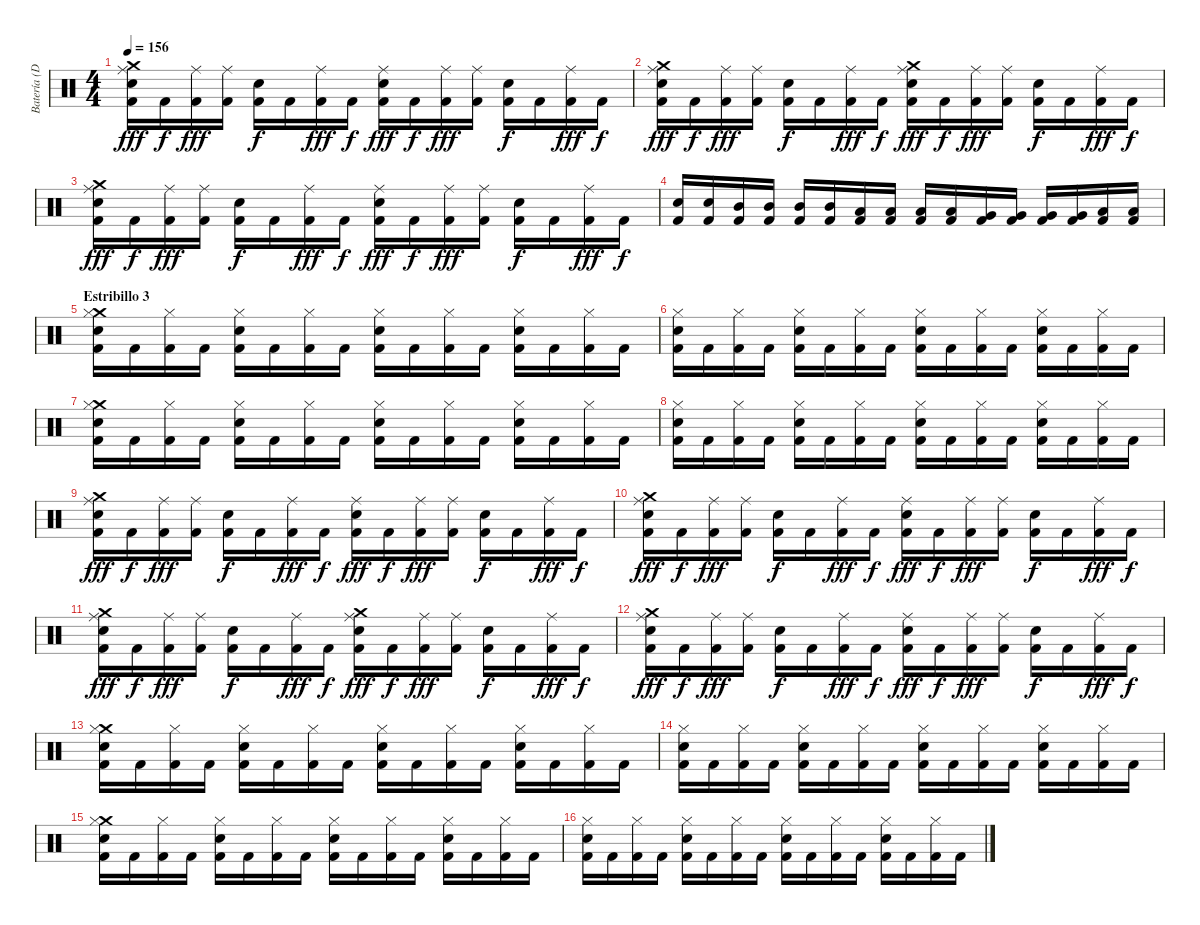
\track ("Batería (Dani)" "Batería (D") {instrument percussion}
\staff {score}
\articulation defaults
\ts (4 4)
\tempo 156
\clef neutral
\ks c
("Crash medium (hit)" "Ride (middle)" "Snare (hit) 2" "Kick (hit) 2").16{dy fff} "Kick (hit) 2".16{dy f} ("Ride (middle)" "Kick (hit) 2").16{dy fff} ("Ride (middle)" "Kick (hit) 2").16 ("Snare (hit) 2" "Kick (hit) 2").16{dy f} "Kick (hit) 2".16 ("Ride (middle)" "Kick (hit) 2").16{dy fff} "Kick (hit) 2".16{dy f} ("Ride (middle)" "Snare (hit) 2" "Kick (hit) 2").16{dy fff} "Kick (hit) 2".16{dy f} ("Ride (middle)" "Kick (hit) 2").16{dy fff} ("Ride (middle)" "Kick (hit) 2").16 ("Snare (hit) 2" "Kick (hit) 2").16{dy f} "Kick (hit) 2".16 ("Ride (middle)" "Kick (hit) 2").16{dy fff} "Kick (hit) 2".16{dy f} |
("Crash medium (hit)" "Ride (middle)" "Snare (hit) 2" "Kick (hit) 2").16{dy fff} "Kick (hit) 2".16{dy f} ("Ride (middle)" "Kick (hit) 2").16{dy fff} ("Ride (middle)" "Kick (hit) 2").16 ("Snare (hit) 2" "Kick (hit) 2").16{dy f} "Kick (hit) 2".16 ("Ride (middle)" "Kick (hit) 2").16{dy fff} "Kick (hit) 2".16{dy f} ("Crash medium (hit)" "Ride (middle)" "Snare (hit) 2" "Kick (hit) 2").16{dy fff} "Kick (hit) 2".16{dy f} ("Ride (middle)" "Kick (hit) 2").16{dy fff} ("Ride (middle)" "Kick (hit) 2").16 ("Snare (hit) 2" "Kick (hit) 2").16{dy f} "Kick (hit) 2".16 ("Ride (middle)" "Kick (hit) 2").16{dy fff} "Kick (hit) 2".16{dy f} |
("Crash medium (hit)" "Ride (middle)" "Snare (hit) 2" "Kick (hit) 2").16{dy fff} "Kick (hit) 2".16{dy f} ("Ride (middle)" "Kick (hit) 2").16{dy fff} ("Ride (middle)" "Kick (hit) 2").16 ("Snare (hit) 2" "Kick (hit) 2").16{dy f} "Kick (hit) 2".16 ("Ride (middle)" "Kick (hit) 2").16{dy fff} "Kick (hit) 2".16{dy f} ("Ride (middle)" "Snare (hit) 2" "Kick (hit) 2").16{dy fff} "Kick (hit) 2".16{dy f} ("Ride (middle)" "Kick (hit) 2").16{dy fff} ("Ride (middle)" "Kick (hit) 2").16 ("Snare (hit) 2" "Kick (hit) 2").16{dy f} "Kick (hit) 2".16 ("Ride (middle)" "Kick (hit) 2").16{dy fff} "Kick (hit) 2".16{dy f} |
("Snare (hit) 2" "Kick (hit) 2").16 ("Snare (hit) 2" "Kick (hit) 2").16 ("Mid Tom (hit)" "Kick (hit) 2").16 ("Mid Tom (hit)" "Kick (hit) 2").16 ("Mid Tom (hit)" "Kick (hit) 2").16 ("Mid Tom (hit)" "Kick (hit) 2").16 ("Low Tom (hit)" "Kick (hit) 2").16 ("Low Tom (hit)" "Kick (hit) 2").16 ("Low Tom (hit)" "Kick (hit) 2").16 ("Low Tom (hit)" "Kick (hit) 2").16 ("Very Low Tom (hit)" "Kick (hit) 2").16 ("Very Low Tom (hit)" "Kick (hit) 2").16 ("Very Low Tom (hit)" "Kick (hit) 2").16 ("Very Low Tom (hit)" "Kick (hit) 2").16 ("Low Floor Tom (hit)" "Kick (hit) 2").16 ("Low Floor Tom (hit)" "Kick (hit) 2").16 |
\section ("" "Estribillo 3")
("Crash medium (hit)" "Hi-Hat (closed)" "Snare (hit) 2" "Kick (hit) 2").16 "Kick (hit) 2".16 ("Hi-Hat (closed)" "Kick (hit) 2").16 "Kick (hit) 2".16 ("Hi-Hat (closed)" "Snare (hit) 2" "Kick (hit) 2").16 "Kick (hit) 2".16 ("Hi-Hat (closed)" "Kick (hit) 2").16 "Kick (hit) 2".16 ("Hi-Hat (closed)" "Snare (hit) 2" "Kick (hit) 2").16 "Kick (hit) 2".16 ("Hi-Hat (closed)" "Kick (hit) 2").16 "Kick (hit) 2".16 ("Hi-Hat (closed)" "Snare (hit) 2" "Kick (hit) 2").16 "Kick (hit) 2".16 ("Hi-Hat (closed)" "Kick (hit) 2").16 "Kick (hit) 2".16 |
("Hi-Hat (closed)" "Snare (hit) 2" "Kick (hit) 2").16 "Kick (hit) 2".16 ("Hi-Hat (closed)" "Kick (hit) 2").16 "Kick (hit) 2".16 ("Hi-Hat (closed)" "Snare (hit) 2" "Kick (hit) 2").16 "Kick (hit) 2".16 ("Hi-Hat (closed)" "Kick (hit) 2").16 "Kick (hit) 2".16 ("Hi-Hat (closed)" "Snare (hit) 2" "Kick (hit) 2").16 "Kick (hit) 2".16 ("Hi-Hat (closed)" "Kick (hit) 2").16 "Kick (hit) 2".16 ("Hi-Hat (closed)" "Snare (hit) 2" "Kick (hit) 2").16 "Kick (hit) 2".16 ("Hi-Hat (closed)" "Kick (hit) 2").16 "Kick (hit) 2".16 |
("Crash medium (hit)" "Hi-Hat (closed)" "Snare (hit) 2" "Kick (hit) 2").16 "Kick (hit) 2".16 ("Hi-Hat (closed)" "Kick (hit) 2").16 "Kick (hit) 2".16 ("Hi-Hat (closed)" "Snare (hit) 2" "Kick (hit) 2").16 "Kick (hit) 2".16 ("Hi-Hat (closed)" "Kick (hit) 2").16 "Kick (hit) 2".16 ("Hi-Hat (closed)" "Snare (hit) 2" "Kick (hit) 2").16 "Kick (hit) 2".16 ("Hi-Hat (closed)" "Kick (hit) 2").16 "Kick (hit) 2".16 ("Hi-Hat (closed)" "Snare (hit) 2" "Kick (hit) 2").16 "Kick (hit) 2".16 ("Hi-Hat (closed)" "Kick (hit) 2").16 "Kick (hit) 2".16 |
("Hi-Hat (closed)" "Snare (hit) 2" "Kick (hit) 2").16 "Kick (hit) 2".16 ("Hi-Hat (closed)" "Kick (hit) 2").16 "Kick (hit) 2".16 ("Hi-Hat (closed)" "Snare (hit) 2" "Kick (hit) 2").16 "Kick (hit) 2".16 ("Hi-Hat (closed)" "Kick (hit) 2").16 "Kick (hit) 2".16 ("Hi-Hat (closed)" "Snare (hit) 2" "Kick (hit) 2").16 "Kick (hit) 2".16 ("Hi-Hat (closed)" "Kick (hit) 2").16 "Kick (hit) 2".16 ("Hi-Hat (closed)" "Snare (hit) 2" "Kick (hit) 2").16 "Kick (hit) 2".16 ("Hi-Hat (closed)" "Kick (hit) 2").16 "Kick (hit) 2".16 |
("Crash medium (hit)" "Ride (middle)" "Snare (hit) 2" "Kick (hit) 2").16{dy fff} "Kick (hit) 2".16{dy f} ("Ride (middle)" "Kick (hit) 2").16{dy fff} ("Ride (middle)" "Kick (hit) 2").16 ("Snare (hit) 2" "Kick (hit) 2").16{dy f} "Kick (hit) 2".16 ("Ride (middle)" "Kick (hit) 2").16{dy fff} "Kick (hit) 2".16{dy f} ("Ride (middle)" "Snare (hit) 2" "Kick (hit) 2").16{dy fff} "Kick (hit) 2".16{dy f} ("Ride (middle)" "Kick (hit) 2").16{dy fff} ("Ride (middle)" "Kick (hit) 2").16 ("Snare (hit) 2" "Kick (hit) 2").16{dy f} "Kick (hit) 2".16 ("Ride (middle)" "Kick (hit) 2").16{dy fff} "Kick (hit) 2".16{dy f} |
("Crash medium (hit)" "Ride (middle)" "Snare (hit) 2" "Kick (hit) 2").16{dy fff} "Kick (hit) 2".16{dy f} ("Ride (middle)" "Kick (hit) 2").16{dy fff} ("Ride (middle)" "Kick (hit) 2").16 ("Snare (hit) 2" "Kick (hit) 2").16{dy f} "Kick (hit) 2".16 ("Ride (middle)" "Kick (hit) 2").16{dy fff} "Kick (hit) 2".16{dy f} ("Ride (middle)" "Snare (hit) 2" "Kick (hit) 2").16{dy fff} "Kick (hit) 2".16{dy f} ("Ride (middle)" "Kick (hit) 2").16{dy fff} ("Ride (middle)" "Kick (hit) 2").16 ("Snare (hit) 2" "Kick (hit) 2").16{dy f} "Kick (hit) 2".16 ("Ride (middle)" "Kick (hit) 2").16{dy fff} "Kick (hit) 2".16{dy f} |
("Crash medium (hit)" "Ride (middle)" "Snare (hit) 2" "Kick (hit) 2").16{dy fff} "Kick (hit) 2".16{dy f} ("Ride (middle)" "Kick (hit) 2").16{dy fff} ("Ride (middle)" "Kick (hit) 2").16 ("Snare (hit) 2" "Kick (hit) 2").16{dy f} "Kick (hit) 2".16 ("Ride (middle)" "Kick (hit) 2").16{dy fff} "Kick (hit) 2".16{dy f} ("Crash medium (hit)" "Ride (middle)" "Snare (hit) 2" "Kick (hit) 2").16{dy fff} "Kick (hit) 2".16{dy f} ("Ride (middle)" "Kick (hit) 2").16{dy fff} ("Ride (middle)" "Kick (hit) 2").16 ("Snare (hit) 2" "Kick (hit) 2").16{dy f} "Kick (hit) 2".16 ("Ride (middle)" "Kick (hit) 2").16{dy fff} "Kick (hit) 2".16{dy f} |
("Crash medium (hit)" "Ride (middle)" "Snare (hit) 2" "Kick (hit) 2").16{dy fff} "Kick (hit) 2".16{dy f} ("Ride (middle)" "Kick (hit) 2").16{dy fff} ("Ride (middle)" "Kick (hit) 2").16 ("Snare (hit) 2" "Kick (hit) 2").16{dy f} "Kick (hit) 2".16 ("Ride (middle)" "Kick (hit) 2").16{dy fff} "Kick (hit) 2".16{dy f} ("Ride (middle)" "Snare (hit) 2" "Kick (hit) 2").16{dy fff} "Kick (hit) 2".16{dy f} ("Ride (middle)" "Kick (hit) 2").16{dy fff} ("Ride (middle)" "Kick (hit) 2").16 ("Snare (hit) 2" "Kick (hit) 2").16{dy f} "Kick (hit) 2".16 ("Ride (middle)" "Kick (hit) 2").16{dy fff} "Kick (hit) 2".16{dy f} |
("Crash medium (hit)" "Hi-Hat (closed)" "Snare (hit) 2" "Kick (hit) 2").16 "Kick (hit) 2".16 ("Hi-Hat (closed)" "Kick (hit) 2").16 "Kick (hit) 2".16 ("Hi-Hat (closed)" "Snare (hit) 2" "Kick (hit) 2").16 "Kick (hit) 2".16 ("Hi-Hat (closed)" "Kick (hit) 2").16 "Kick (hit) 2".16 ("Hi-Hat (closed)" "Snare (hit) 2" "Kick (hit) 2").16 "Kick (hit) 2".16 ("Hi-Hat (closed)" "Kick (hit) 2").16 "Kick (hit) 2".16 ("Hi-Hat (closed)" "Snare (hit) 2" "Kick (hit) 2").16 "Kick (hit) 2".16 ("Hi-Hat (closed)" "Kick (hit) 2").16 "Kick (hit) 2".16 |
("Hi-Hat (closed)" "Snare (hit) 2" "Kick (hit) 2").16 "Kick (hit) 2".16 ("Hi-Hat (closed)" "Kick (hit) 2").16 "Kick (hit) 2".16 ("Hi-Hat (closed)" "Snare (hit) 2" "Kick (hit) 2").16 "Kick (hit) 2".16 ("Hi-Hat (closed)" "Kick (hit) 2").16 "Kick (hit) 2".16 ("Hi-Hat (closed)" "Snare (hit) 2" "Kick (hit) 2").16 "Kick (hit) 2".16 ("Hi-Hat (closed)" "Kick (hit) 2").16 "Kick (hit) 2".16 ("Hi-Hat (closed)" "Snare (hit) 2" "Kick (hit) 2").16 "Kick (hit) 2".16 ("Hi-Hat (closed)" "Kick (hit) 2").16 "Kick (hit) 2".16 |
("Crash medium (hit)" "Hi-Hat (closed)" "Snare (hit) 2" "Kick (hit) 2").16 "Kick (hit) 2".16 ("Hi-Hat (closed)" "Kick (hit) 2").16 "Kick (hit) 2".16 ("Hi-Hat (closed)" "Snare (hit) 2" "Kick (hit) 2").16 "Kick (hit) 2".16 ("Hi-Hat (closed)" "Kick (hit) 2").16 "Kick (hit) 2".16 ("Hi-Hat (closed)" "Snare (hit) 2" "Kick (hit) 2").16 "Kick (hit) 2".16 ("Hi-Hat (closed)" "Kick (hit) 2").16 "Kick (hit) 2".16 ("Hi-Hat (closed)" "Snare (hit) 2" "Kick (hit) 2").16 "Kick (hit) 2".16 ("Hi-Hat (closed)" "Kick (hit) 2").16 "Kick (hit) 2".16 |
("Hi-Hat (closed)" "Snare (hit) 2" "Kick (hit) 2").16 "Kick (hit) 2".16 ("Hi-Hat (closed)" "Kick (hit) 2").16 "Kick (hit) 2".16 ("Hi-Hat (closed)" "Snare (hit) 2" "Kick (hit) 2").16 "Kick (hit) 2".16 ("Hi-Hat (closed)" "Kick (hit) 2").16 "Kick (hit) 2".16 ("Hi-Hat (closed)" "Snare (hit) 2" "Kick (hit) 2").16 "Kick (hit) 2".16 ("Hi-Hat (closed)" "Kick (hit) 2").16 "Kick (hit) 2".16 ("Hi-Hat (closed)" "Snare (hit) 2" "Kick (hit) 2").16 "Kick (hit) 2".16 ("Hi-Hat (closed)" "Kick (hit) 2").16 "Kick (hit) 2".16
